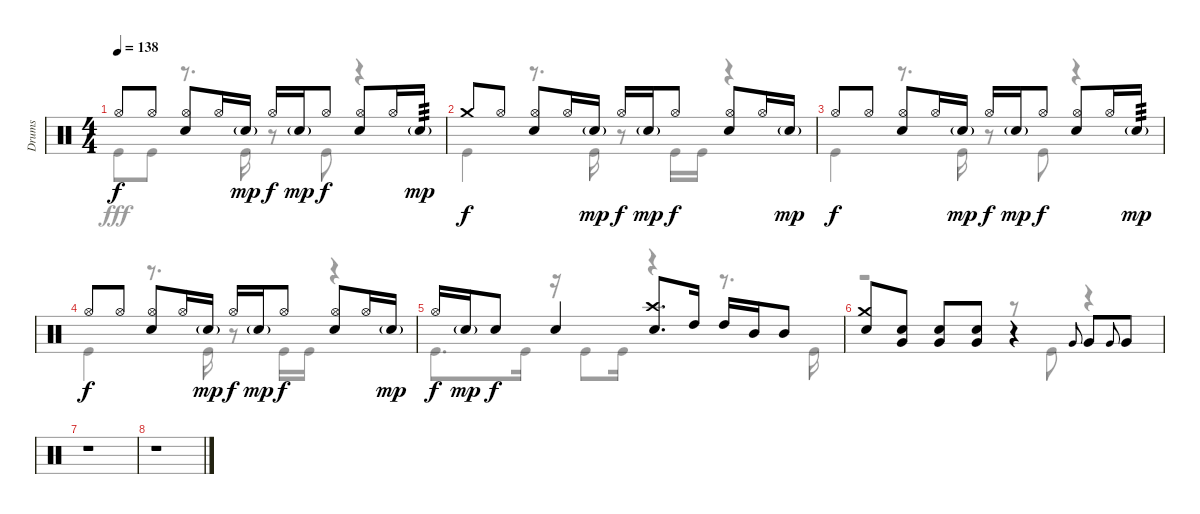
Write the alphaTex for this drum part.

\track ("Drums" "Drums") {instrument percussion}
\staff {score}
\articulation defaults
\voice
\ts (4 4)
\tempo 138
\clef neutral
\ks c "Hi-Hat (open)".8{dy f} "Hi-Hat (open)".8
("Hi-Hat (open)" "Snare (hit) 2").8 "Hi-Hat (open)".16 "Snare (hit) 2"{g}.16{dy mp} "Hi-Hat (open)".16{dy f} "Snare (hit) 2"{g}.16{dy mp} "Hi-Hat (open)".8{dy f} ("Hi-Hat (open)" "Snare (hit) 2").8 "Hi-Hat (open)".16 "Snare (hit) 2"{g}.16{tp 3 dy mp} |
"Crash medium (hit)".8{dy f} "Hi-Hat (open)".8 ("Hi-Hat (open)" "Snare (hit) 2").8 "Hi-Hat (open)".16 "Snare (hit) 2"{g}.16{dy mp} "Hi-Hat (open)".16{dy f} "Snare (hit) 2"{g}.16{dy mp} "Hi-Hat (open)".8{dy f} ("Hi-Hat (open)" "Snare (hit) 2").8 "Hi-Hat (open)".16 "Snare (hit) 2"{g}.16{dy mp} |
"Hi-Hat (open)".8{dy f} "Hi-Hat (open)".8 ("Hi-Hat (open)" "Snare (hit) 2").8 "Hi-Hat (open)".16 "Snare (hit) 2"{g}.16{dy mp} "Hi-Hat (open)".16{dy f} "Snare (hit) 2"{g}.16{dy mp} "Hi-Hat (open)".8{dy f} ("Hi-Hat (open)" "Snare (hit) 2").8 "Hi-Hat (open)".16 "Snare (hit) 2"{g}.16{tp 3 dy mp} |
"Hi-Hat (open)".8{dy f} "Hi-Hat (open)".8 ("Hi-Hat (open)" "Snare (hit) 2").8 "Hi-Hat (open)".16 "Snare (hit) 2"{g}.16{dy mp} "Hi-Hat (open)".16{dy f} "Snare (hit) 2"{g}.16{dy mp} "Hi-Hat (open)".8{dy f} ("Hi-Hat (open)" "Snare (hit) 2").8 "Hi-Hat (open)".16 "Snare (hit) 2"{g}.16{dy mp} |
"Hi-Hat (open)".16{dy f} "Snare (hit) 2"{g}.16{dy mp} "Snare (hit) 2".8{dy f} "Snare (hit) 2".4 ("Crash high (hit)" "Snare (hit) 2").8{d} "High Tom (hit)".16 "High Tom (hit)".16 "Mid Tom (hit)".16 "Mid Tom (hit)".8 |
("Crash medium (hit)" "Snare (hit) 2").8 ("Snare (hit) 2" "Very Low Tom (hit)").8 ("Snare (hit) 2" "Very Low Tom (hit)").8 ("Snare (hit) 2" "Very Low Tom (hit)").8 r.4 "Very Low Tom (hit)".8{gr onbeat} "Very Low Tom (hit)".8 "Very Low Tom (hit)".8{gr onbeat} "Very Low Tom (hit)".8 |
r.1 |
r.1
\voice
\clef neutral
\ottava regular
\simile none
\ks c "Kick (hit)".8{dy fff} "Kick (hit)".8
r.8{d} "Kick (hit)".16 r.8 "Kick (hit)".8 r.4 |
"Kick (hit)".4 r.8{d} "Kick (hit)".16 r.8 "Kick (hit)".16 "Kick (hit)".16 r.4 |
"Kick (hit)".4 r.8{d} "Kick (hit)".16 r.8 "Kick (hit)".8 r.4 |
"Kick (hit)".4 r.8{d} "Kick (hit)".16 r.8 "Kick (hit)".16 "Kick (hit)".16 r.4 |
"Kick (hit)".8{d} "Kick (hit)".16 r.16 "Kick (hit)".8 "Kick (hit)".16 r.4 r.8{d} "Kick (hit)".16 |
r.2 r.8 "Kick (hit)".8 r.4 |
r.1 |
r.1
